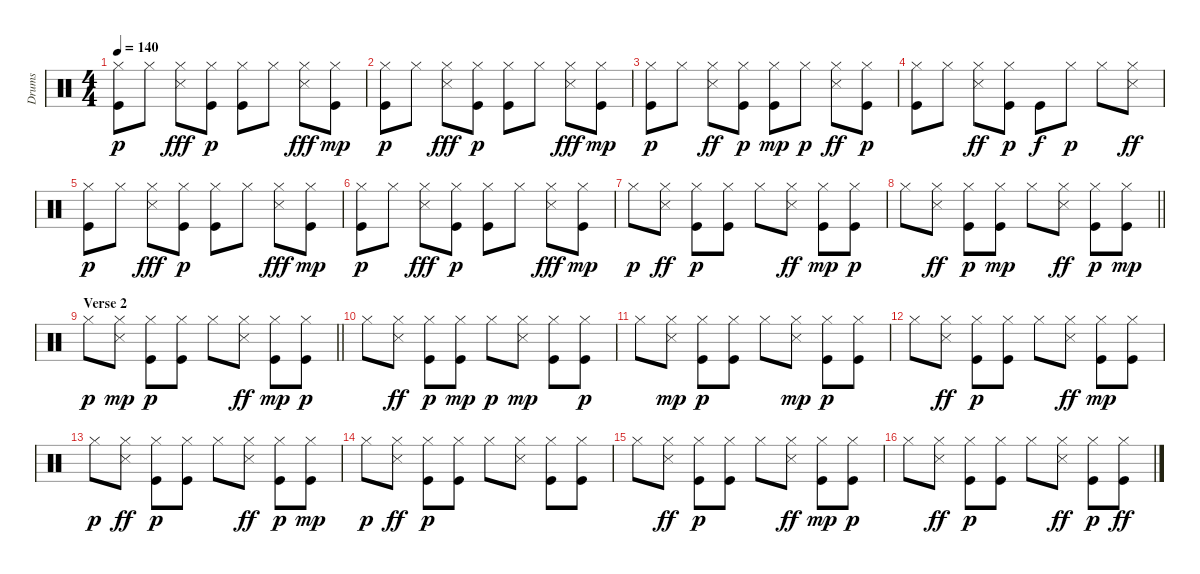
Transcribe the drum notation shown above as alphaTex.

\track ("Drums" "Drums") {instrument percussion}
\staff {score}
\articulation defaults
\ts (4 4)
\tempo 140
\clef neutral
\ks c
("Kick (hit)" "Hi-Hat (closed)").8{dy p} "Hi-Hat (closed)".8 ("Hi-Hat (closed)" "Snare (side stick) 3").8{dy fff} ("Kick (hit)" "Hi-Hat (closed)").8{dy p} ("Kick (hit)" "Hi-Hat (closed)").8 "Hi-Hat (closed)".8 ("Hi-Hat (closed)" "Snare (side stick) 3").8{dy fff} ("Hi-Hat (closed)" "Kick (hit)").8{dy mp} |
("Kick (hit)" "Hi-Hat (closed)").8{dy p} "Hi-Hat (closed)".8 ("Hi-Hat (closed)" "Snare (side stick) 3").8{dy fff} ("Kick (hit)" "Hi-Hat (closed)").8{dy p} ("Kick (hit)" "Hi-Hat (closed)").8 "Hi-Hat (closed)".8 ("Hi-Hat (closed)" "Snare (side stick) 3").8{dy fff} ("Hi-Hat (closed)" "Kick (hit)").8{dy mp} |
("Hi-Hat (closed)" "Kick (hit)").8{dy p} "Hi-Hat (closed)".8 ("Hi-Hat (closed)" "Snare (side stick) 3").8{dy ff} ("Hi-Hat (closed)" "Kick (hit)").8{dy p} ("Hi-Hat (closed)" "Kick (hit)").8{dy mp} "Hi-Hat (closed)".8{dy p} ("Hi-Hat (closed)" "Snare (side stick) 3").8{dy ff} ("Hi-Hat (closed)" "Kick (hit)").8{dy p} |
("Hi-Hat (closed)" "Kick (hit)").8 "Hi-Hat (closed)".8 ("Hi-Hat (closed)" "Snare (side stick) 3").8{dy ff} ("Hi-Hat (closed)" "Kick (hit)").8{dy p} "Kick (hit)".8{dy f} "Hi-Hat (closed)".8{dy p} "Hi-Hat (closed)".8 ("Hi-Hat (closed)" "Snare (side stick) 3").8{dy ff} |
("Kick (hit)" "Hi-Hat (closed)").8{dy p} "Hi-Hat (closed)".8 ("Hi-Hat (closed)" "Snare (side stick) 3").8{dy fff} ("Kick (hit)" "Hi-Hat (closed)").8{dy p} ("Kick (hit)" "Hi-Hat (closed)").8 "Hi-Hat (closed)".8 ("Hi-Hat (closed)" "Snare (side stick) 3").8{dy fff} ("Hi-Hat (closed)" "Kick (hit)").8{dy mp} |
("Kick (hit)" "Hi-Hat (closed)").8{dy p} "Hi-Hat (closed)".8 ("Hi-Hat (closed)" "Snare (side stick) 3").8{dy fff} ("Kick (hit)" "Hi-Hat (closed)").8{dy p} ("Kick (hit)" "Hi-Hat (closed)").8 "Hi-Hat (closed)".8 ("Hi-Hat (closed)" "Snare (side stick) 3").8{dy fff} ("Hi-Hat (closed)" "Kick (hit)").8{dy mp} |
"Hi-Hat (closed)".8{dy p} ("Hi-Hat (closed)" "Snare (side stick) 3").8{dy ff} ("Hi-Hat (closed)" "Kick (hit)").8{dy p} ("Hi-Hat (closed)" "Kick (hit)").8 "Hi-Hat (closed)".8 ("Hi-Hat (closed)" "Snare (side stick) 3").8{dy ff} ("Kick (hit)" "Hi-Hat (closed)").8{dy mp} ("Hi-Hat (closed)" "Kick (hit)").8{dy p} |
\barLineRight lightlight "Hi-Hat (closed)".8
("Hi-Hat (closed)" "Snare (side stick) 3").8{dy ff} ("Kick (hit)" "Hi-Hat (closed)").8{dy p} ("Hi-Hat (closed)" "Kick (hit)").8{dy mp} "Hi-Hat (closed)".8 ("Hi-Hat (closed)" "Snare (side stick) 3").8{dy ff} ("Kick (hit)" "Hi-Hat (closed)").8{dy p} ("Hi-Hat (closed)" "Kick (hit)").8{dy mp} |
\section ("" "Verse 2")
\barLineRight lightlight "Hi-Hat (closed)".8{dy p}
("Hi-Hat (closed)" "Snare (side stick) 3").8{dy mp} ("Kick (hit)" "Hi-Hat (closed)").8{dy p} ("Kick (hit)" "Hi-Hat (closed)").8 "Hi-Hat (closed)".8 ("Hi-Hat (closed)" "Snare (side stick) 3").8{dy ff} ("Hi-Hat (closed)" "Kick (hit)").8{dy mp} ("Hi-Hat (closed)" "Kick (hit)").8{dy p} |
\section ("" "")
"Hi-Hat (closed)".8 ("Hi-Hat (closed)" "Snare (side stick) 3").8{dy ff} ("Hi-Hat (closed)" "Kick (hit)").8{dy p} ("Hi-Hat (closed)" "Kick (hit)").8{dy mp} "Hi-Hat (closed)".8{dy p} ("Snare (side stick) 3" "Hi-Hat (closed)").8{dy mp} ("Kick (hit)" "Hi-Hat (closed)").8 ("Kick (hit)" "Hi-Hat (closed)").8{dy p} |
"Hi-Hat (closed)".8 ("Snare (side stick) 3" "Hi-Hat (closed)").8{dy mp} ("Kick (hit)" "Hi-Hat (closed)").8{dy p} ("Hi-Hat (closed)" "Kick (hit)").8 "Hi-Hat (closed)".8 ("Snare (side stick) 3" "Hi-Hat (closed)").8{dy mp} ("Hi-Hat (closed)" "Kick (hit)").8{dy p} ("Hi-Hat (closed)" "Kick (hit)").8 |
"Hi-Hat (closed)".8 ("Hi-Hat (closed)" "Snare (side stick) 3").8{dy ff} ("Hi-Hat (closed)" "Kick (hit)").8{dy p} ("Hi-Hat (closed)" "Kick (hit)").8 "Hi-Hat (closed)".8 ("Hi-Hat (closed)" "Snare (side stick) 3").8{dy ff} ("Hi-Hat (closed)" "Kick (hit)").8{dy mp} ("Hi-Hat (closed)" "Kick (hit)").8 |
"Hi-Hat (closed)".8{dy p} ("Hi-Hat (closed)" "Snare (side stick) 3").8{dy ff} ("Hi-Hat (closed)" "Kick (hit)").8{dy p} ("Hi-Hat (closed)" "Kick (hit)").8 "Hi-Hat (closed)".8 ("Hi-Hat (closed)" "Snare (side stick) 3").8{dy ff} ("Hi-Hat (closed)" "Kick (hit)").8{dy p} ("Hi-Hat (closed)" "Kick (hit)").8{dy mp} |
"Hi-Hat (closed)".8{dy p} ("Hi-Hat (closed)" "Snare (side stick) 3").8{dy ff} ("Hi-Hat (closed)" "Kick (hit)").8{dy p} ("Hi-Hat (closed)" "Kick (hit)").8 "Hi-Hat (closed)".8 ("Snare (side stick) 3" "Hi-Hat (closed)").8 ("Kick (hit)" "Hi-Hat (closed)").8 ("Kick (hit)" "Hi-Hat (closed)").8 |
"Hi-Hat (closed)".8 ("Hi-Hat (closed)" "Snare (side stick) 3").8{dy ff} ("Hi-Hat (closed)" "Kick (hit)").8{dy p} ("Hi-Hat (closed)" "Kick (hit)").8 "Hi-Hat (closed)".8 ("Hi-Hat (closed)" "Snare (side stick) 3").8{dy ff} ("Hi-Hat (closed)" "Kick (hit)").8{dy mp} ("Hi-Hat (closed)" "Kick (hit)").8{dy p} |
"Hi-Hat (closed)".8 ("Hi-Hat (closed)" "Snare (side stick) 3").8{dy ff} ("Kick (hit)" "Hi-Hat (closed)").8{dy p} ("Kick (hit)" "Hi-Hat (closed)").8 "Hi-Hat (closed)".8 ("Hi-Hat (closed)" "Snare (side stick) 3").8{dy ff} ("Hi-Hat (closed)" "Kick (hit)").8{dy p} ("Hi-Hat (closed)" "Kick (hit)").8{dy ff}
